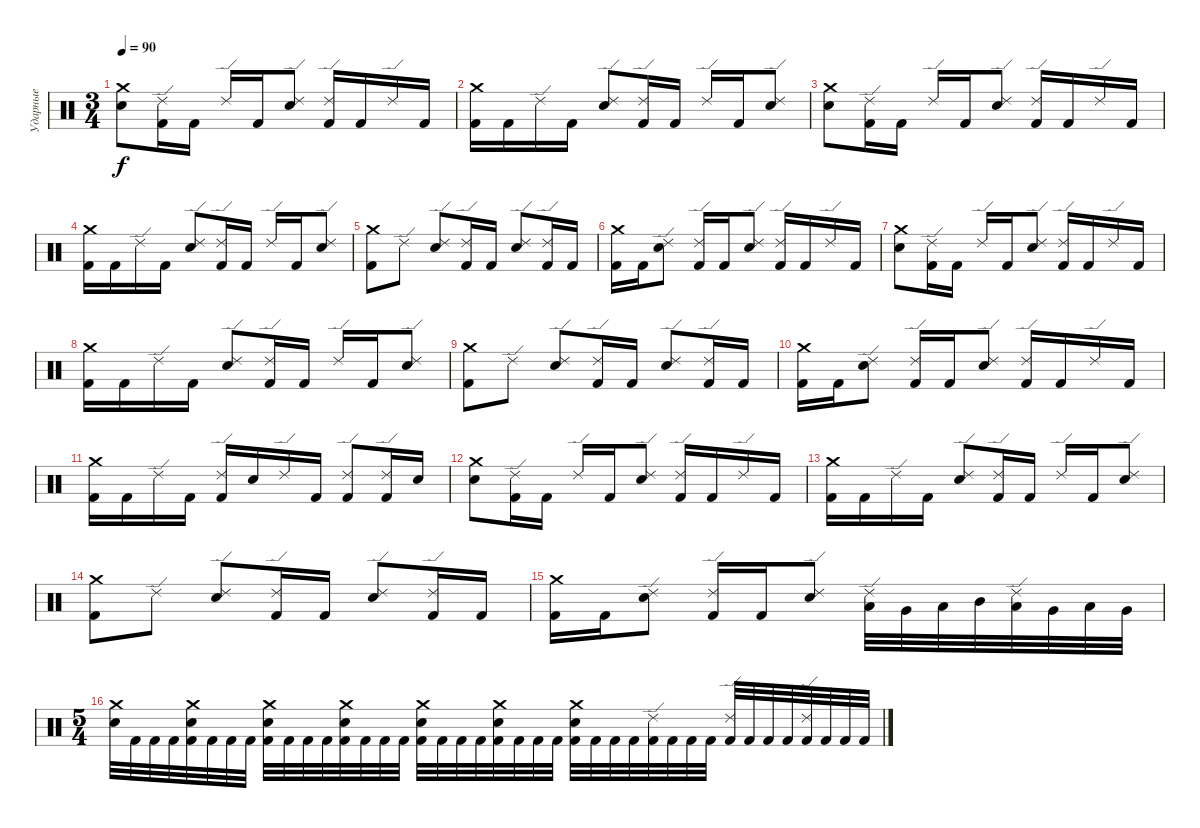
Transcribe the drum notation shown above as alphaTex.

\track ("Ударные" "Ударные") {instrument percussion}
\staff {score}
\articulation defaults
\ts (3 4)
\tempo 90
\clef neutral
\ks c
("Crash medium (hit)" "Electric Snare (hit)").8{dy f} ("Ride (edge) 2" "Kick (hit) 2").16 "Kick (hit) 2".16 "Ride (edge) 2".16 "Kick (hit) 2".16 ("Ride (edge) 2" "Electric Snare (hit)").8 ("Ride (edge) 2" "Kick (hit) 2").16 "Kick (hit) 2".16 "Ride (edge) 2".16 "Kick (hit) 2".16 |
("Crash medium (hit)" "Kick (hit) 2").16 "Kick (hit) 2".16 "Ride (edge) 2".16 "Kick (hit) 2".16 ("Ride (edge) 2" "Electric Snare (hit)").8 ("Ride (edge) 2" "Kick (hit) 2").16 "Kick (hit) 2".16 "Ride (edge) 2".16 "Kick (hit) 2".16 ("Ride (edge) 2" "Electric Snare (hit)").8 |
("Crash medium (hit)" "Electric Snare (hit)").8 ("Ride (edge) 2" "Kick (hit) 2").16 "Kick (hit) 2".16 "Ride (edge) 2".16 "Kick (hit) 2".16 ("Ride (edge) 2" "Electric Snare (hit)").8 ("Ride (edge) 2" "Kick (hit) 2").16 "Kick (hit) 2".16 "Ride (edge) 2".16 "Kick (hit) 2".16 |
("Crash medium (hit)" "Kick (hit) 2").16 "Kick (hit) 2".16 "Ride (edge) 2".16 "Kick (hit) 2".16 ("Ride (edge) 2" "Electric Snare (hit)").8 ("Ride (edge) 2" "Kick (hit) 2").16 "Kick (hit) 2".16 "Ride (edge) 2".16 "Kick (hit) 2".16 ("Ride (edge) 2" "Electric Snare (hit)").8 |
("Crash medium (hit)" "Kick (hit) 2").8 "Ride (edge) 2".8 ("Ride (edge) 2" "Electric Snare (hit)").8 ("Ride (edge) 2" "Kick (hit) 2").16 "Kick (hit) 2".16 ("Ride (edge) 2" "Electric Snare (hit)").8 ("Ride (edge) 2" "Kick (hit) 2").16 "Kick (hit) 2".16 |
("Crash medium (hit)" "Kick (hit) 2").16 "Kick (hit) 2".16 ("Ride (edge) 2" "Electric Snare (hit)").8 ("Ride (edge) 2" "Kick (hit) 2").16 "Kick (hit) 2".16 ("Ride (edge) 2" "Electric Snare (hit)").8 ("Ride (edge) 2" "Kick (hit) 2").16 "Kick (hit) 2".16 "Ride (edge) 2".16 "Kick (hit) 2".16 |
("Crash medium (hit)" "Electric Snare (hit)").8 ("Ride (edge) 2" "Kick (hit) 2").16 "Kick (hit) 2".16 "Ride (edge) 2".16 "Kick (hit) 2".16 ("Ride (edge) 2" "Electric Snare (hit)").8 ("Ride (edge) 2" "Kick (hit) 2").16 "Kick (hit) 2".16 "Ride (edge) 2".16 "Kick (hit) 2".16 |
("Crash medium (hit)" "Kick (hit) 2").16 "Kick (hit) 2".16 "Ride (edge) 2".16 "Kick (hit) 2".16 ("Ride (edge) 2" "Electric Snare (hit)").8 ("Ride (edge) 2" "Kick (hit) 2").16 "Kick (hit) 2".16 "Ride (edge) 2".16 "Kick (hit) 2".16 ("Ride (edge) 2" "Electric Snare (hit)").8 |
("Crash medium (hit)" "Kick (hit) 2").8 "Ride (edge) 2".8 ("Ride (edge) 2" "Electric Snare (hit)").8 ("Ride (edge) 2" "Kick (hit) 2").16 "Kick (hit) 2".16 ("Ride (edge) 2" "Electric Snare (hit)").8 ("Ride (edge) 2" "Kick (hit) 2").16 "Kick (hit) 2".16 |
("Crash medium (hit)" "Kick (hit) 2").16 "Kick (hit) 2".16 ("Ride (edge) 2" "Electric Snare (hit)").8 ("Ride (edge) 2" "Kick (hit) 2").16 "Kick (hit) 2".16 ("Ride (edge) 2" "Electric Snare (hit)").8 ("Ride (edge) 2" "Kick (hit) 2").16 "Kick (hit) 2".16 "Ride (edge) 2".16 "Kick (hit) 2".16 |
("Crash medium (hit)" "Kick (hit) 2").16 "Kick (hit) 2".16 "Ride (edge) 2".16 "Kick (hit) 2".16 ("Ride (edge) 2" "Kick (hit) 2").16 "Electric Snare (hit)".16 "Ride (edge) 2".16 "Kick (hit) 2".16 ("Ride (edge) 2" "Kick (hit) 2").8 ("Ride (edge) 2" "Kick (hit) 2").16 "Electric Snare (hit)".16 |
("Crash medium (hit)" "Electric Snare (hit)").8 ("Ride (edge) 2" "Kick (hit) 2").16 "Kick (hit) 2".16 "Ride (edge) 2".16 "Kick (hit) 2".16 ("Ride (edge) 2" "Electric Snare (hit)").8 ("Ride (edge) 2" "Kick (hit) 2").16 "Kick (hit) 2".16 "Ride (edge) 2".16 "Kick (hit) 2".16 |
("Crash medium (hit)" "Kick (hit) 2").16 "Kick (hit) 2".16 "Ride (edge) 2".16 "Kick (hit) 2".16 ("Ride (edge) 2" "Electric Snare (hit)").8 ("Ride (edge) 2" "Kick (hit) 2").16 "Kick (hit) 2".16 "Ride (edge) 2".16 "Kick (hit) 2".16 ("Ride (edge) 2" "Electric Snare (hit)").8 |
("Crash medium (hit)" "Kick (hit) 2").8 "Ride (edge) 2".8 ("Ride (edge) 2" "Electric Snare (hit)").8 ("Ride (edge) 2" "Kick (hit) 2").16 "Kick (hit) 2".16 ("Ride (edge) 2" "Electric Snare (hit)").8 ("Ride (edge) 2" "Kick (hit) 2").16 "Kick (hit) 2".16 |
("Crash medium (hit)" "Kick (hit) 2").16 "Kick (hit) 2".16 ("Ride (edge) 2" "Electric Snare (hit)").8 ("Ride (edge) 2" "Kick (hit) 2").16 "Kick (hit) 2".16 ("Ride (edge) 2" "Electric Snare (hit)").8 ("Low Floor Tom (hit)" "Ride (edge) 2").32 "Very Low Tom (hit)".32 "Low Tom (hit)".32 "Mid Tom (hit)".32 ("Low Tom (hit)" "Ride (edge) 2").32 "Very Low Tom (hit)".32 "Low Floor Tom (hit)".32 "Very Low Tom (hit)".32 |
\ts (5 4)
("Crash medium (hit)" "Electric Snare (hit)").32 "Kick (hit) 2".32 "Kick (hit) 2".32 "Kick (hit) 2".32 ("Kick (hit) 2" "Electric Snare (hit)" "Crash medium (hit)").32 "Kick (hit) 2".32 "Kick (hit) 2".32 "Kick (hit) 2".32 ("Kick (hit) 2" "Crash medium (hit)" "Electric Snare (hit)").32 "Kick (hit) 2".32 "Kick (hit) 2".32 "Kick (hit) 2".32 ("Kick (hit) 2" "Electric Snare (hit)" "Crash medium (hit)").32 "Kick (hit) 2".32 "Kick (hit) 2".32 "Kick (hit) 2".32 ("Kick (hit) 2" "Crash medium (hit)" "Electric Snare (hit)").32 "Kick (hit) 2".32 "Kick (hit) 2".32 "Kick (hit) 2".32 ("Kick (hit) 2" "Electric Snare (hit)" "Crash medium (hit)").32 "Kick (hit) 2".32 "Kick (hit) 2".32 "Kick (hit) 2".32 ("Kick (hit) 2" "Crash medium (hit)" "Electric Snare (hit)").32 "Kick (hit) 2".32 "Kick (hit) 2".32 "Kick (hit) 2".32 ("Ride (edge) 2" "Kick (hit) 2").32 "Kick (hit) 2".32 "Kick (hit) 2".32 "Kick (hit) 2".32 ("Ride (edge) 2" "Kick (hit) 2").32 "Kick (hit) 2".32 "Kick (hit) 2".32 "Kick (hit) 2".32 ("Ride (edge) 2" "Kick (hit) 2").32 "Kick (hit) 2".32 "Kick (hit) 2".32 "Kick (hit) 2".32
